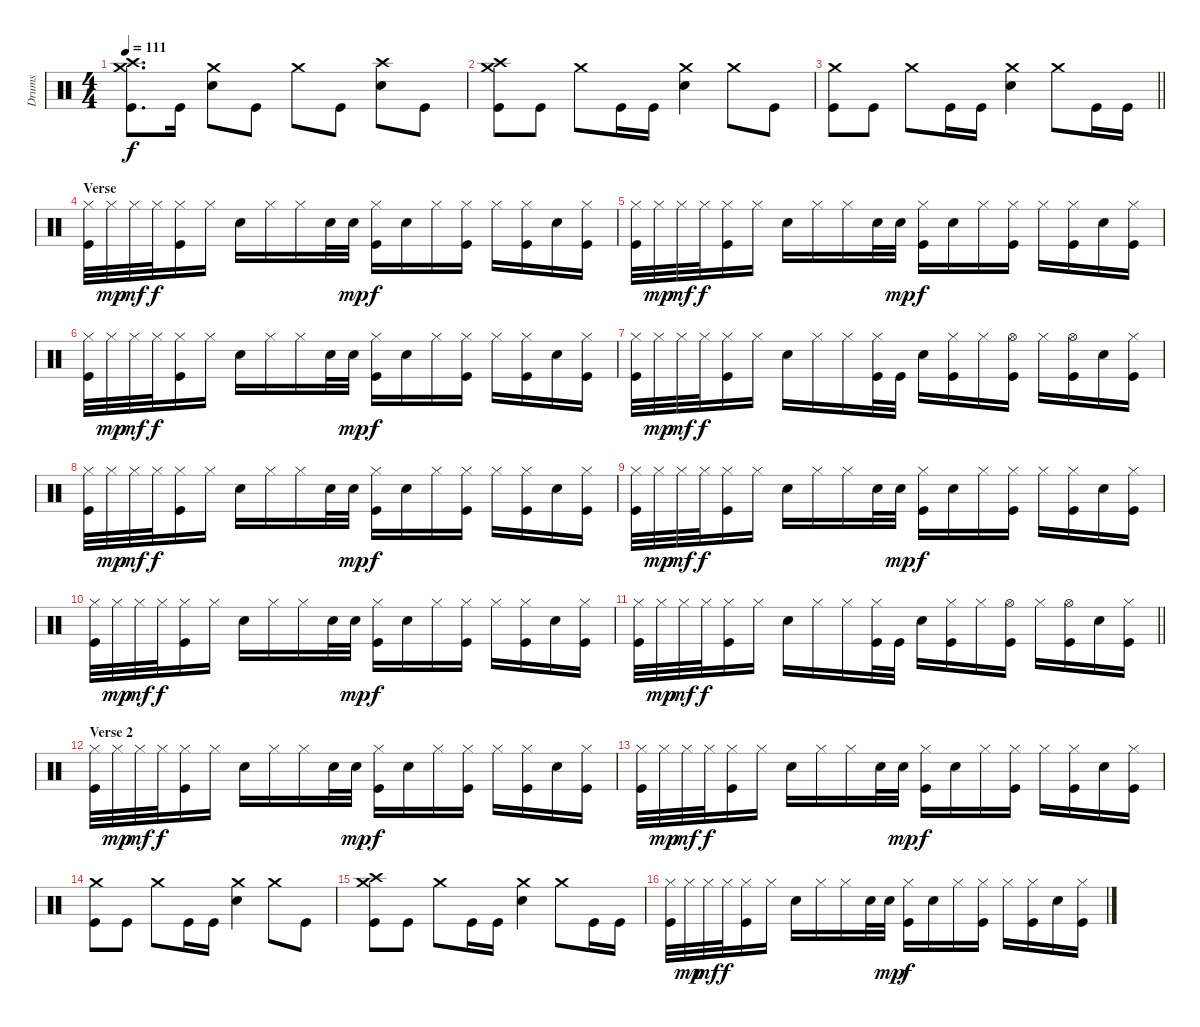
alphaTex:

\track ("Drums" "Drums") {instrument percussion}
\staff {score}
\articulation defaults
\ts (4 4)
\tempo 111
\clef neutral
\ks c
("Crash medium (hit)" "Crash high (hit)" "Kick (hit)").8{d dy f} "Kick (hit)".16 ("Crash medium (hit)" "Electric Snare (hit)").8 "Kick (hit)".8 "Crash medium (hit)".8 "Kick (hit)".8 ("Crash high (hit)" "Electric Snare (hit)").8 "Kick (hit)".8 |
("Crash medium (hit)" "Crash high (hit)" "Kick (hit)").8 "Kick (hit)".8 "Crash medium (hit)".8 "Kick (hit)".16 "Kick (hit)".16 ("Crash medium (hit)" "Electric Snare (hit)").4 "Crash medium (hit)".8 "Kick (hit)".8 |
\barLineRight lightlight
("Crash medium (hit)" "Kick (hit)").8 "Kick (hit)".8 "Crash medium (hit)".8 "Kick (hit)".16 "Kick (hit)".16 ("Crash medium (hit)" "Electric Snare (hit)").4 "Crash medium (hit)".8 "Kick (hit)".16 "Kick (hit)".16 |
\section ("" "Verse")
("Hi-Hat (closed)" "Kick (hit)").32 "Hi-Hat (closed)".32{dy mp} "Hi-Hat (closed)".32{dy mf} "Hi-Hat (closed)".32{dy f} ("Hi-Hat (closed)" "Kick (hit)").16 "Hi-Hat (closed)".16 "Electric Snare (hit)".16 "Hi-Hat (closed)".16 "Hi-Hat (closed)".16 "Electric Snare (hit)".32 "Electric Snare (hit)".32{dy mp} ("Hi-Hat (closed)" "Kick (hit)").16{dy f} "Electric Snare (hit)".16 "Hi-Hat (closed)".16 ("Hi-Hat (closed)" "Kick (hit)").16 "Hi-Hat (closed)".16 ("Hi-Hat (closed)" "Kick (hit)").16 "Electric Snare (hit)".16 ("Hi-Hat (closed)" "Kick (hit)").16 |
("Hi-Hat (closed)" "Kick (hit)").32 "Hi-Hat (closed)".32{dy mp} "Hi-Hat (closed)".32{dy mf} "Hi-Hat (closed)".32{dy f} ("Hi-Hat (closed)" "Kick (hit)").16 "Hi-Hat (closed)".16 "Electric Snare (hit)".16 "Hi-Hat (closed)".16 "Hi-Hat (closed)".16 "Electric Snare (hit)".32 "Electric Snare (hit)".32{dy mp} ("Hi-Hat (closed)" "Kick (hit)").16{dy f} "Electric Snare (hit)".16 "Hi-Hat (closed)".16 ("Hi-Hat (closed)" "Kick (hit)").16 "Hi-Hat (closed)".16 ("Hi-Hat (closed)" "Kick (hit)").16 "Electric Snare (hit)".16 ("Hi-Hat (closed)" "Kick (hit)").16 |
("Hi-Hat (closed)" "Kick (hit)").32 "Hi-Hat (closed)".32{dy mp} "Hi-Hat (closed)".32{dy mf} "Hi-Hat (closed)".32{dy f} ("Hi-Hat (closed)" "Kick (hit)").16 "Hi-Hat (closed)".16 "Electric Snare (hit)".16 "Hi-Hat (closed)".16 "Hi-Hat (closed)".16 "Electric Snare (hit)".32 "Electric Snare (hit)".32{dy mp} ("Hi-Hat (closed)" "Kick (hit)").16{dy f} "Electric Snare (hit)".16 "Hi-Hat (closed)".16 ("Hi-Hat (closed)" "Kick (hit)").16 "Hi-Hat (closed)".16 ("Hi-Hat (closed)" "Kick (hit)").16 "Electric Snare (hit)".16 ("Hi-Hat (closed)" "Kick (hit)").16 |
("Hi-Hat (closed)" "Kick (hit)").32 "Hi-Hat (closed)".32{dy mp} "Hi-Hat (closed)".32{dy mf} "Hi-Hat (closed)".32{dy f} ("Hi-Hat (closed)" "Kick (hit)").16 "Hi-Hat (closed)".16 "Electric Snare (hit)".16 "Hi-Hat (closed)".16 "Hi-Hat (closed)".16 ("Hi-Hat (closed)" "Kick (hit)").32 "Kick (hit)".32 "Electric Snare (hit)".16 ("Hi-Hat (closed)" "Kick (hit)").16 "Hi-Hat (closed)".16 ("Hi-Hat (open)" "Kick (hit)").16 "Hi-Hat (closed)".16 ("Hi-Hat (open)" "Kick (hit)").16 "Electric Snare (hit)".16 ("Hi-Hat (closed)" "Kick (hit)").16 |
("Hi-Hat (closed)" "Kick (hit)").32 "Hi-Hat (closed)".32{dy mp} "Hi-Hat (closed)".32{dy mf} "Hi-Hat (closed)".32{dy f} ("Hi-Hat (closed)" "Kick (hit)").16 "Hi-Hat (closed)".16 "Electric Snare (hit)".16 "Hi-Hat (closed)".16 "Hi-Hat (closed)".16 "Electric Snare (hit)".32 "Electric Snare (hit)".32{dy mp} ("Hi-Hat (closed)" "Kick (hit)").16{dy f} "Electric Snare (hit)".16 "Hi-Hat (closed)".16 ("Hi-Hat (closed)" "Kick (hit)").16 "Hi-Hat (closed)".16 ("Hi-Hat (closed)" "Kick (hit)").16 "Electric Snare (hit)".16 ("Hi-Hat (closed)" "Kick (hit)").16 |
("Hi-Hat (closed)" "Kick (hit)").32 "Hi-Hat (closed)".32{dy mp} "Hi-Hat (closed)".32{dy mf} "Hi-Hat (closed)".32{dy f} ("Hi-Hat (closed)" "Kick (hit)").16 "Hi-Hat (closed)".16 "Electric Snare (hit)".16 "Hi-Hat (closed)".16 "Hi-Hat (closed)".16 "Electric Snare (hit)".32 "Electric Snare (hit)".32{dy mp} ("Hi-Hat (closed)" "Kick (hit)").16{dy f} "Electric Snare (hit)".16 "Hi-Hat (closed)".16 ("Hi-Hat (closed)" "Kick (hit)").16 "Hi-Hat (closed)".16 ("Hi-Hat (closed)" "Kick (hit)").16 "Electric Snare (hit)".16 ("Hi-Hat (closed)" "Kick (hit)").16 |
("Hi-Hat (closed)" "Kick (hit)").32 "Hi-Hat (closed)".32{dy mp} "Hi-Hat (closed)".32{dy mf} "Hi-Hat (closed)".32{dy f} ("Hi-Hat (closed)" "Kick (hit)").16 "Hi-Hat (closed)".16 "Electric Snare (hit)".16 "Hi-Hat (closed)".16 "Hi-Hat (closed)".16 "Electric Snare (hit)".32 "Electric Snare (hit)".32{dy mp} ("Hi-Hat (closed)" "Kick (hit)").16{dy f} "Electric Snare (hit)".16 "Hi-Hat (closed)".16 ("Hi-Hat (closed)" "Kick (hit)").16 "Hi-Hat (closed)".16 ("Hi-Hat (closed)" "Kick (hit)").16 "Electric Snare (hit)".16 ("Hi-Hat (closed)" "Kick (hit)").16 |
\barLineRight lightlight
("Hi-Hat (closed)" "Kick (hit)").32 "Hi-Hat (closed)".32{dy mp} "Hi-Hat (closed)".32{dy mf} "Hi-Hat (closed)".32{dy f} ("Hi-Hat (closed)" "Kick (hit)").16 "Hi-Hat (closed)".16 "Electric Snare (hit)".16 "Hi-Hat (closed)".16 "Hi-Hat (closed)".16 ("Hi-Hat (closed)" "Kick (hit)").32 "Kick (hit)".32 "Electric Snare (hit)".16 ("Hi-Hat (closed)" "Kick (hit)").16 "Hi-Hat (closed)".16 ("Hi-Hat (open)" "Kick (hit)").16 "Hi-Hat (closed)".16 ("Hi-Hat (open)" "Kick (hit)").16 "Electric Snare (hit)".16 ("Hi-Hat (closed)" "Kick (hit)").16 |
\section ("" "Verse 2")
("Hi-Hat (closed)" "Kick (hit)").32 "Hi-Hat (closed)".32{dy mp} "Hi-Hat (closed)".32{dy mf} "Hi-Hat (closed)".32{dy f} ("Hi-Hat (closed)" "Kick (hit)").16 "Hi-Hat (closed)".16 "Electric Snare (hit)".16 "Hi-Hat (closed)".16 "Hi-Hat (closed)".16 "Electric Snare (hit)".32 "Electric Snare (hit)".32{dy mp} ("Hi-Hat (closed)" "Kick (hit)").16{dy f} "Electric Snare (hit)".16 "Hi-Hat (closed)".16 ("Hi-Hat (closed)" "Kick (hit)").16 "Hi-Hat (closed)".16 ("Hi-Hat (closed)" "Kick (hit)").16 "Electric Snare (hit)".16 ("Hi-Hat (closed)" "Kick (hit)").16 |
("Hi-Hat (closed)" "Kick (hit)").32 "Hi-Hat (closed)".32{dy mp} "Hi-Hat (closed)".32{dy mf} "Hi-Hat (closed)".32{dy f} ("Hi-Hat (closed)" "Kick (hit)").16 "Hi-Hat (closed)".16 "Electric Snare (hit)".16 "Hi-Hat (closed)".16 "Hi-Hat (closed)".16 "Electric Snare (hit)".32 "Electric Snare (hit)".32{dy mp} ("Hi-Hat (closed)" "Kick (hit)").16{dy f} "Electric Snare (hit)".16 "Hi-Hat (closed)".16 ("Hi-Hat (closed)" "Kick (hit)").16 "Hi-Hat (closed)".16 ("Hi-Hat (closed)" "Kick (hit)").16 "Electric Snare (hit)".16 ("Hi-Hat (closed)" "Kick (hit)").16 |
("Crash medium (hit)" "Kick (hit)").8 "Kick (hit)".8 "Crash medium (hit)".8 "Kick (hit)".16 "Kick (hit)".16 ("Crash medium (hit)" "Electric Snare (hit)").4 "Crash medium (hit)".8 "Kick (hit)".8 |
("Crash medium (hit)" "Crash high (hit)" "Kick (hit)").8 "Kick (hit)".8 "Crash medium (hit)".8 "Kick (hit)".16 "Kick (hit)".16 ("Crash medium (hit)" "Electric Snare (hit)").4 "Crash medium (hit)".8 "Kick (hit)".16 "Kick (hit)".16 |
("Hi-Hat (closed)" "Kick (hit)").32 "Hi-Hat (closed)".32{dy mp} "Hi-Hat (closed)".32{dy mf} "Hi-Hat (closed)".32{dy f} ("Hi-Hat (closed)" "Kick (hit)").16 "Hi-Hat (closed)".16 "Electric Snare (hit)".16 "Hi-Hat (closed)".16 "Hi-Hat (closed)".16 "Electric Snare (hit)".32 "Electric Snare (hit)".32{dy mp} ("Hi-Hat (closed)" "Kick (hit)").16{dy f} "Electric Snare (hit)".16 "Hi-Hat (closed)".16 ("Hi-Hat (closed)" "Kick (hit)").16 "Hi-Hat (closed)".16 ("Hi-Hat (closed)" "Kick (hit)").16 "Electric Snare (hit)".16 ("Hi-Hat (closed)" "Kick (hit)").16
